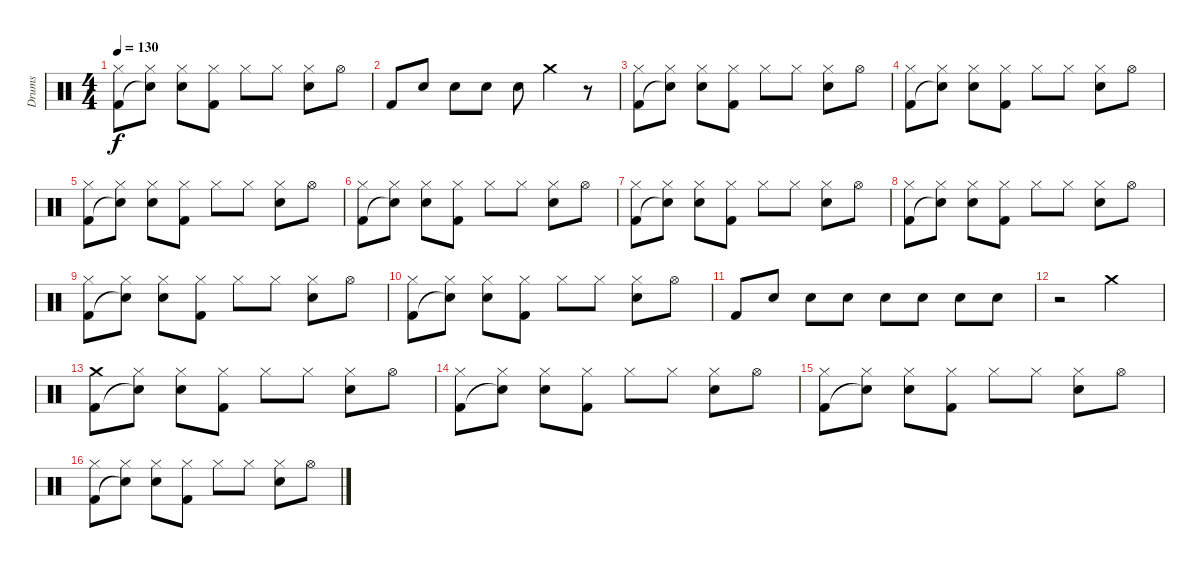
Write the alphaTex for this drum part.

\track ("Drums" "Drums") {instrument percussion}
\staff {score}
\articulation defaults
\ts (4 4)
\tempo 130
\clef neutral
\ks c
("Hi-Hat (closed)" "Kick (hit) 2").8{dy f} ("Hi-Hat (closed)" "Snare (hit)"{t}).8 ("Hi-Hat (closed)" "Electric Snare (hit)").8 ("Hi-Hat (closed)" "Kick (hit) 2").8 "Hi-Hat (closed)".8 "Hi-Hat (closed)".8 ("Hi-Hat (closed)" "Electric Snare (hit)").8 "Hi-Hat (open)".8 |
"Kick (hit) 2".8 "Electric Snare (hit)".8 "Electric Snare (hit)".8 "Electric Snare (hit)".8 "Electric Snare (hit)".8 "Crash medium (hit)".4 r.8 |
("Hi-Hat (closed)" "Kick (hit) 2").8 ("Hi-Hat (closed)" "Snare (hit)"{t}).8 ("Hi-Hat (closed)" "Electric Snare (hit)").8 ("Hi-Hat (closed)" "Kick (hit) 2").8 "Hi-Hat (closed)".8 "Hi-Hat (closed)".8 ("Hi-Hat (closed)" "Electric Snare (hit)").8 "Hi-Hat (open)".8 |
("Hi-Hat (closed)" "Kick (hit) 2").8 ("Hi-Hat (closed)" "Snare (hit)"{t}).8 ("Hi-Hat (closed)" "Electric Snare (hit)").8 ("Hi-Hat (closed)" "Kick (hit) 2").8 "Hi-Hat (closed)".8 "Hi-Hat (closed)".8 ("Hi-Hat (closed)" "Electric Snare (hit)").8 "Hi-Hat (open)".8 |
("Hi-Hat (closed)" "Kick (hit) 2").8 ("Hi-Hat (closed)" "Snare (hit)"{t}).8 ("Hi-Hat (closed)" "Electric Snare (hit)").8 ("Hi-Hat (closed)" "Kick (hit) 2").8 "Hi-Hat (closed)".8 "Hi-Hat (closed)".8 ("Hi-Hat (closed)" "Electric Snare (hit)").8 "Hi-Hat (open)".8 |
("Hi-Hat (closed)" "Kick (hit) 2").8 ("Hi-Hat (closed)" "Snare (hit)"{t}).8 ("Hi-Hat (closed)" "Electric Snare (hit)").8 ("Hi-Hat (closed)" "Kick (hit) 2").8 "Hi-Hat (closed)".8 "Hi-Hat (closed)".8 ("Hi-Hat (closed)" "Electric Snare (hit)").8 "Hi-Hat (open)".8 |
("Hi-Hat (closed)" "Kick (hit) 2").8 ("Hi-Hat (closed)" "Snare (hit)"{t}).8 ("Hi-Hat (closed)" "Electric Snare (hit)").8 ("Hi-Hat (closed)" "Kick (hit) 2").8 "Hi-Hat (closed)".8 "Hi-Hat (closed)".8 ("Hi-Hat (closed)" "Electric Snare (hit)").8 "Hi-Hat (open)".8 |
("Hi-Hat (closed)" "Kick (hit) 2").8 ("Hi-Hat (closed)" "Snare (hit)"{t}).8 ("Hi-Hat (closed)" "Electric Snare (hit)").8 ("Hi-Hat (closed)" "Kick (hit) 2").8 "Hi-Hat (closed)".8 "Hi-Hat (closed)".8 ("Hi-Hat (closed)" "Electric Snare (hit)").8 "Hi-Hat (open)".8 |
("Hi-Hat (closed)" "Kick (hit) 2").8 ("Hi-Hat (closed)" "Snare (hit)"{t}).8 ("Hi-Hat (closed)" "Electric Snare (hit)").8 ("Hi-Hat (closed)" "Kick (hit) 2").8 "Hi-Hat (closed)".8 "Hi-Hat (closed)".8 ("Hi-Hat (closed)" "Electric Snare (hit)").8 "Hi-Hat (open)".8 |
("Hi-Hat (closed)" "Kick (hit) 2").8 ("Hi-Hat (closed)" "Snare (hit)"{t}).8 ("Hi-Hat (closed)" "Electric Snare (hit)").8 ("Hi-Hat (closed)" "Kick (hit) 2").8 "Hi-Hat (closed)".8 "Hi-Hat (closed)".8 ("Hi-Hat (closed)" "Electric Snare (hit)").8 "Hi-Hat (open)".8 |
"Kick (hit) 2".8 "Electric Snare (hit)".8 "Electric Snare (hit)".8 "Electric Snare (hit)".8 "Electric Snare (hit)".8 "Electric Snare (hit)".8 "Electric Snare (hit)".8 "Electric Snare (hit)".8 |
r.2 "Crash medium (hit)".2 |
("Crash medium (hit)" "Kick (hit) 2").8 ("Hi-Hat (closed)" "Snare (hit)"{t}).8 ("Hi-Hat (closed)" "Electric Snare (hit)").8 ("Hi-Hat (closed)" "Kick (hit) 2").8 "Hi-Hat (closed)".8 "Hi-Hat (closed)".8 ("Hi-Hat (closed)" "Electric Snare (hit)").8 "Hi-Hat (open)".8 |
("Hi-Hat (closed)" "Kick (hit) 2").8 ("Hi-Hat (closed)" "Snare (hit)"{t}).8 ("Hi-Hat (closed)" "Electric Snare (hit)").8 ("Hi-Hat (closed)" "Kick (hit) 2").8 "Hi-Hat (closed)".8 "Hi-Hat (closed)".8 ("Hi-Hat (closed)" "Electric Snare (hit)").8 "Hi-Hat (open)".8 |
("Hi-Hat (closed)" "Kick (hit) 2").8 ("Hi-Hat (closed)" "Snare (hit)"{t}).8 ("Hi-Hat (closed)" "Electric Snare (hit)").8 ("Hi-Hat (closed)" "Kick (hit) 2").8 "Hi-Hat (closed)".8 "Hi-Hat (closed)".8 ("Hi-Hat (closed)" "Electric Snare (hit)").8 "Hi-Hat (open)".8 |
("Hi-Hat (closed)" "Kick (hit) 2").8 ("Hi-Hat (closed)" "Snare (hit)"{t}).8 ("Hi-Hat (closed)" "Electric Snare (hit)").8 ("Hi-Hat (closed)" "Kick (hit) 2").8 "Hi-Hat (closed)".8 "Hi-Hat (closed)".8 ("Hi-Hat (closed)" "Electric Snare (hit)").8 "Hi-Hat (open)".8
